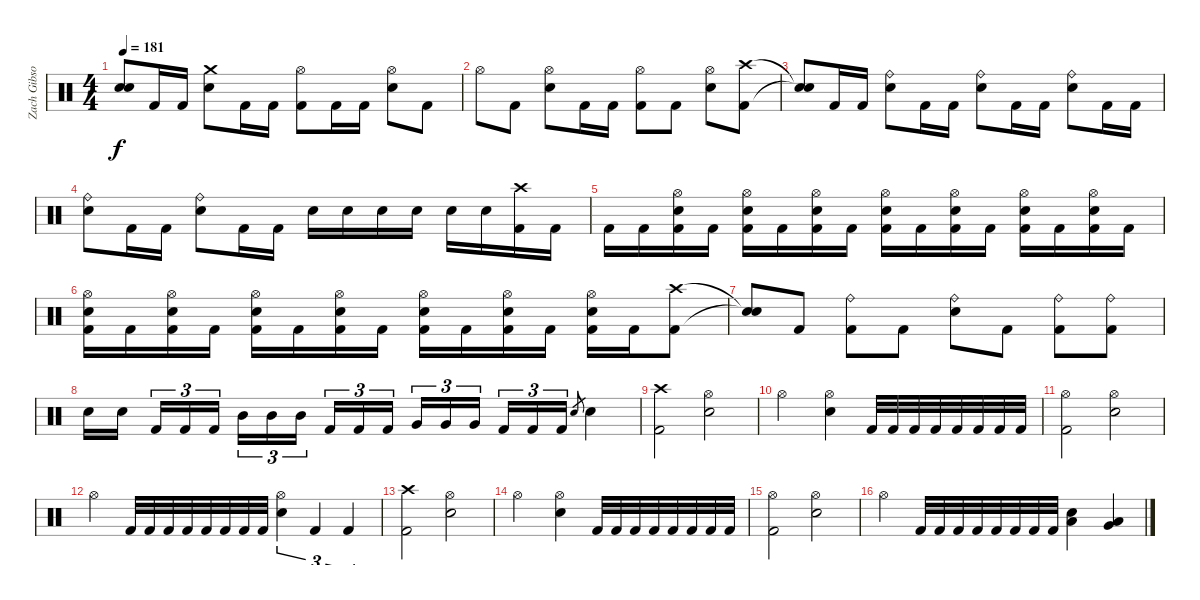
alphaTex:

\track ("Zach Gibson (Drums)" "Zach Gibso") {instrument percussion}
\staff {score}
\articulation defaults
\ts (4 4)
\tempo 181
\clef neutral
\ks c
("Snare (hit)"{t} "Snare (hit)"{t}).8{dy f} "Kick (hit) 2".16 "Kick (hit) 2".16 ("Crash medium (hit)" "Snare (hit) 2").8 "Kick (hit) 2".16 "Kick (hit) 2".16 ("Kick (hit) 2" "Hi-Hat (open)").8 "Kick (hit) 2".16 "Kick (hit) 2".16 ("Hi-Hat (open)" "Snare (hit) 2").8 "Kick (hit) 2".8 |
"Hi-Hat (open)".8 "Kick (hit) 2".8 ("Hi-Hat (open)" "Snare (hit) 2").8 "Kick (hit) 2".16 "Kick (hit) 2".16 ("Kick (hit) 2" "Hi-Hat (open)").8 "Kick (hit) 2".8 ("Hi-Hat (open)" "Snare (hit) 2").8 ("Crash high (hit)" "Kick (hit) 2").8 |
("Snare (hit)"{t} "Snare (hit)"{t}).8 "Kick (hit) 2".16 "Kick (hit) 2".16 ("Ride (bell)" "Snare (hit) 2").8 "Kick (hit) 2".16 "Kick (hit) 2".16 ("Ride (bell)" "Snare (hit) 2").8 "Kick (hit) 2".16 "Kick (hit) 2".16 ("Ride (bell)" "Snare (hit) 2").8 "Kick (hit) 2".16 "Kick (hit) 2".16 |
("Ride (bell)" "Snare (hit) 2").8 "Kick (hit) 2".16 "Kick (hit) 2".16 ("Ride (bell)" "Snare (hit) 2").8 "Kick (hit) 2".16 "Kick (hit) 2".16 "Snare (hit) 2".16 "Snare (hit) 2".16 "Snare (hit) 2".16 "Snare (hit) 2".16 "Snare (hit) 2".16 "Snare (hit) 2".16 ("Crash high (hit)" "Kick (hit) 2").16 "Kick (hit) 2".16 |
"Kick (hit) 2".16 "Kick (hit) 2".16 ("Hi-Hat (open)" "Snare (hit) 2" "Kick (hit) 2").16 "Kick (hit) 2".16 ("Hi-Hat (open)" "Snare (hit) 2" "Kick (hit) 2").16 "Kick (hit) 2".16 ("Hi-Hat (open)" "Snare (hit) 2" "Kick (hit) 2").16 "Kick (hit) 2".16 ("Hi-Hat (open)" "Snare (hit) 2" "Kick (hit) 2").16 "Kick (hit) 2".16 ("Hi-Hat (open)" "Snare (hit) 2" "Kick (hit) 2").16 "Kick (hit) 2".16 ("Hi-Hat (open)" "Snare (hit) 2" "Kick (hit) 2").16 "Kick (hit) 2".16 ("Hi-Hat (open)" "Snare (hit) 2" "Kick (hit) 2").16 "Kick (hit) 2".16 |
("Hi-Hat (open)" "Snare (hit) 2" "Kick (hit) 2").16 "Kick (hit) 2".16 ("Hi-Hat (open)" "Snare (hit) 2" "Kick (hit) 2").16 "Kick (hit) 2".16 ("Hi-Hat (open)" "Snare (hit) 2" "Kick (hit) 2").16 "Kick (hit) 2".16 ("Hi-Hat (open)" "Snare (hit) 2" "Kick (hit) 2").16 "Kick (hit) 2".16 ("Hi-Hat (open)" "Snare (hit) 2" "Kick (hit) 2").16 "Kick (hit) 2".16 ("Hi-Hat (open)" "Snare (hit) 2" "Kick (hit) 2").16 "Kick (hit) 2".16 ("Hi-Hat (open)" "Snare (hit) 2" "Kick (hit) 2").16 "Kick (hit) 2".16 ("Crash high (hit)" "Kick (hit) 2").8 |
("Snare (hit)"{t} "Snare (hit)"{t}).8 "Kick (hit) 2".8 ("Ride (bell)" "Kick (hit) 2").8 "Kick (hit) 2".8 ("Ride (bell)" "Snare (hit) 2").8 "Kick (hit) 2".8 ("Ride (bell)" "Kick (hit) 2").8 ("Ride (bell)" "Kick (hit) 2").8 |
"Snare (hit) 2".16 "Snare (hit) 2".16 "Kick (hit) 2".16{tu (3 2)} "Kick (hit) 2".16{tu (3 2)} "Kick (hit) 2".16{tu (3 2)} "Mid Tom (hit)".16{tu (3 2)} "Mid Tom (hit)".16{tu (3 2)} "Mid Tom (hit)".16{tu (3 2)} "Kick (hit) 2".16{tu (3 2)} "Kick (hit) 2".16{tu (3 2)} "Kick (hit) 2".16{tu (3 2)} "Very Low Tom (hit)".16{tu (3 2)} "Very Low Tom (hit)".16{tu (3 2)} "Very Low Tom (hit)".16{tu (3 2)} "Kick (hit) 2".16{tu (3 2)} "Kick (hit) 2".16{tu (3 2)} "Kick (hit) 2".16{tu (3 2)} "Snare (hit) 2".8{gr} "Snare (hit) 2".4 |
("Crash high (hit)" "Kick (hit) 2").2 ("Hi-Hat (open)" "Snare (hit) 2").2 |
"Hi-Hat (open)".2 ("Hi-Hat (open)" "Snare (hit) 2").4 "Kick (hit) 2".32 "Kick (hit) 2".32 "Kick (hit) 2".32 "Kick (hit) 2".32 "Kick (hit) 2".32 "Kick (hit) 2".32 "Kick (hit) 2".32 "Kick (hit) 2".32 |
("Hi-Hat (open)" "Kick (hit) 2").2 ("Hi-Hat (open)" "Snare (hit) 2").2 |
"Hi-Hat (open)".4 "Kick (hit) 2".32 "Kick (hit) 2".32 "Kick (hit) 2".32 "Kick (hit) 2".32 "Kick (hit) 2".32 "Kick (hit) 2".32 "Kick (hit) 2".32 "Kick (hit) 2".32 ("Hi-Hat (open)" "Snare (hit) 2").4{tu (3 2)} "Kick (hit) 2".4{tu (3 2)} "Kick (hit) 2".4{tu (3 2)} |
("Crash high (hit)" "Kick (hit) 2").2 ("Hi-Hat (open)" "Snare (hit) 2").2 |
"Hi-Hat (open)".2 ("Hi-Hat (open)" "Snare (hit) 2").4 "Kick (hit) 2".32 "Kick (hit) 2".32 "Kick (hit) 2".32 "Kick (hit) 2".32 "Kick (hit) 2".32 "Kick (hit) 2".32 "Kick (hit) 2".32 "Kick (hit) 2".32 |
("Hi-Hat (open)" "Kick (hit) 2").2 ("Hi-Hat (open)" "Snare (hit) 2").2 |
"Hi-Hat (open)".4 "Kick (hit) 2".32 "Kick (hit) 2".32 "Kick (hit) 2".32 "Kick (hit) 2".32 "Kick (hit) 2".32 "Kick (hit) 2".32 "Kick (hit) 2".32 "Kick (hit) 2".32 ("Low Tom (hit)" "Snare (hit) 2").4 ("Low Floor Tom (hit)" "Very Low Tom (hit)").4
